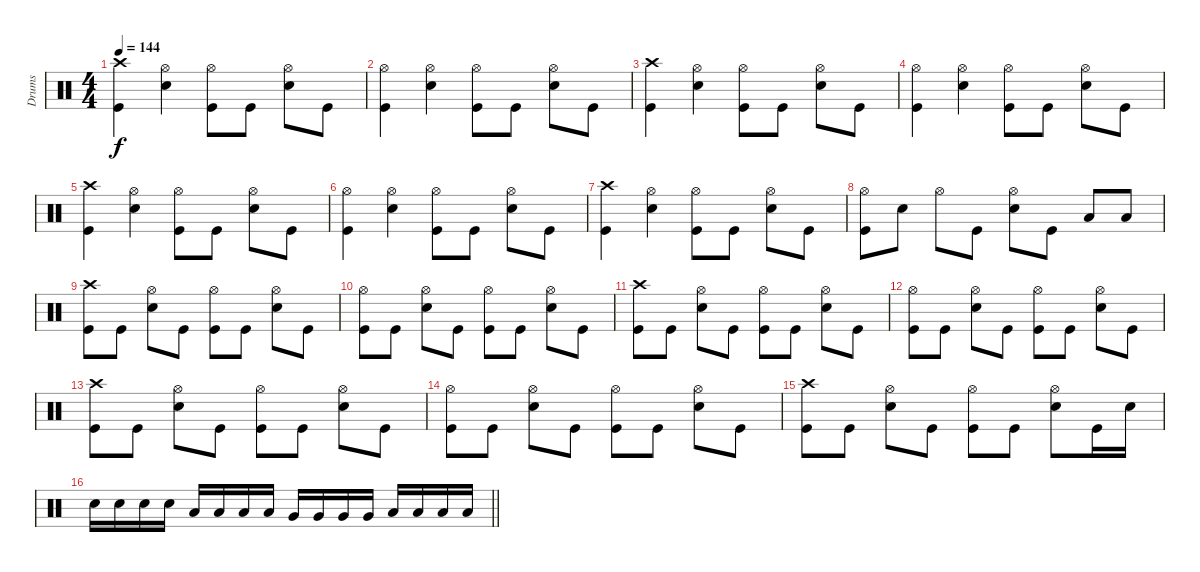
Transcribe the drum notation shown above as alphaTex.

\track ("Drums" "Drums") {instrument percussion}
\staff {score}
\articulation defaults
\ts (4 4)
\tempo 144
\clef neutral
\ks c
("Crash high (hit)" "Kick (hit)").4{dy f} ("Hi-Hat (open)" "Electric Snare (hit)").4 ("Hi-Hat (open)" "Kick (hit)").8 "Kick (hit)".8 ("Hi-Hat (open)" "Electric Snare (hit)").8 "Kick (hit)".8 |
("Hi-Hat (open)" "Kick (hit)").4 ("Hi-Hat (open)" "Electric Snare (hit)").4 ("Hi-Hat (open)" "Kick (hit)").8 "Kick (hit)".8 ("Hi-Hat (open)" "Electric Snare (hit)").8 "Kick (hit)".8 |
("Crash high (hit)" "Kick (hit)").4 ("Hi-Hat (open)" "Electric Snare (hit)").4 ("Hi-Hat (open)" "Kick (hit)").8 "Kick (hit)".8 ("Hi-Hat (open)" "Electric Snare (hit)").8 "Kick (hit)".8 |
("Hi-Hat (open)" "Kick (hit)").4 ("Hi-Hat (open)" "Electric Snare (hit)").4 ("Hi-Hat (open)" "Kick (hit)").8 "Kick (hit)".8 ("Hi-Hat (open)" "Electric Snare (hit)").8 "Kick (hit)".8 |
("Crash high (hit)" "Kick (hit)").4 ("Hi-Hat (open)" "Electric Snare (hit)").4 ("Hi-Hat (open)" "Kick (hit)").8 "Kick (hit)".8 ("Hi-Hat (open)" "Electric Snare (hit)").8 "Kick (hit)".8 |
("Hi-Hat (open)" "Kick (hit)").4 ("Hi-Hat (open)" "Electric Snare (hit)").4 ("Hi-Hat (open)" "Kick (hit)").8 "Kick (hit)".8 ("Hi-Hat (open)" "Electric Snare (hit)").8 "Kick (hit)".8 |
("Crash high (hit)" "Kick (hit)").4 ("Hi-Hat (open)" "Electric Snare (hit)").4 ("Hi-Hat (open)" "Kick (hit)").8 "Kick (hit)".8 ("Hi-Hat (open)" "Electric Snare (hit)").8 "Kick (hit)".8 |
("Hi-Hat (open)" "Kick (hit)").8 "Electric Snare (hit)".8 "Hi-Hat (open)".8 "Kick (hit)".8 ("Hi-Hat (open)" "Electric Snare (hit)").8 "Kick (hit)".8 "Low Floor Tom (hit)".8 "Low Floor Tom (hit)".8 |
("Crash high (hit)" "Kick (hit)").8 "Kick (hit)".8 ("Hi-Hat (open)" "Electric Snare (hit)").8 "Kick (hit)".8 ("Hi-Hat (open)" "Kick (hit)").8 "Kick (hit)".8 ("Hi-Hat (open)" "Electric Snare (hit)").8 "Kick (hit)".8 |
("Hi-Hat (open)" "Kick (hit)").8 "Kick (hit)".8 ("Hi-Hat (open)" "Electric Snare (hit)").8 "Kick (hit)".8 ("Hi-Hat (open)" "Kick (hit)").8 "Kick (hit)".8 ("Hi-Hat (open)" "Electric Snare (hit)").8 "Kick (hit)".8 |
("Crash high (hit)" "Kick (hit)").8 "Kick (hit)".8 ("Hi-Hat (open)" "Electric Snare (hit)").8 "Kick (hit)".8 ("Hi-Hat (open)" "Kick (hit)").8 "Kick (hit)".8 ("Hi-Hat (open)" "Electric Snare (hit)").8 "Kick (hit)".8 |
("Hi-Hat (open)" "Kick (hit)").8 "Kick (hit)".8 ("Hi-Hat (open)" "Electric Snare (hit)").8 "Kick (hit)".8 ("Hi-Hat (open)" "Kick (hit)").8 "Kick (hit)".8 ("Hi-Hat (open)" "Electric Snare (hit)").8 "Kick (hit)".8 |
("Crash high (hit)" "Kick (hit)").8 "Kick (hit)".8 ("Hi-Hat (open)" "Electric Snare (hit)").8 "Kick (hit)".8 ("Hi-Hat (open)" "Kick (hit)").8 "Kick (hit)".8 ("Hi-Hat (open)" "Electric Snare (hit)").8 "Kick (hit)".8 |
("Hi-Hat (open)" "Kick (hit)").8 "Kick (hit)".8 ("Hi-Hat (open)" "Electric Snare (hit)").8 "Kick (hit)".8 ("Hi-Hat (open)" "Kick (hit)").8 "Kick (hit)".8 ("Hi-Hat (open)" "Electric Snare (hit)").8 "Kick (hit)".8 |
("Crash high (hit)" "Kick (hit)").8 "Kick (hit)".8 ("Hi-Hat (open)" "Electric Snare (hit)").8 "Kick (hit)".8 ("Hi-Hat (open)" "Kick (hit)").8 "Kick (hit)".8 ("Hi-Hat (open)" "Electric Snare (hit)").8 "Kick (hit)".16 "Electric Snare (hit)".16 |
\barLineRight lightlight "Electric Snare (hit)".16 "Electric Snare (hit)".16 "Electric Snare (hit)".16 "Electric Snare (hit)".16 "Low Tom (hit)".16 "Low Tom (hit)".16 "Low Tom (hit)".16 "Low Tom (hit)".16 "Very Low Tom (hit)".16 "Very Low Tom (hit)".16 "Very Low Tom (hit)".16 "Very Low Tom (hit)".16 "Low Floor Tom (hit)".16 "Low Floor Tom (hit)".16 "Low Floor Tom (hit)".16 "Low Floor Tom (hit)".16
